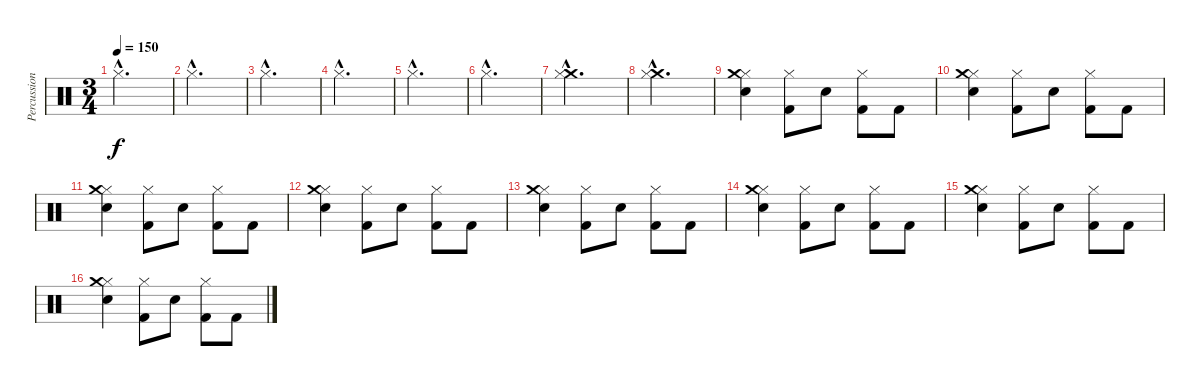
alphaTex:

\track ("Percussions" "Percussion") {instrument percussion}
\staff {score}
\articulation defaults
\ts (3 4)
\tempo 150
\clef neutral
\ks c "Hi-Hat (closed)"{hac}.2{d dy f}
|
"Hi-Hat (closed)"{hac}.2{d} |
"Hi-Hat (closed)"{hac}.2{d} |
"Hi-Hat (closed)"{hac}.2{d} |
"Hi-Hat (closed)"{hac}.2{d} |
"Hi-Hat (closed)"{hac}.2{d} |
("Crash medium (hit)"{hac} "Hi-Hat (closed)"{hac}).2{d} |
("Crash medium (hit)"{hac} "Hi-Hat (closed)"{hac}).2{d} |
("Hi-Hat (closed)" "Snare (hit) 2" "Crash medium (hit)").4 ("Hi-Hat (closed)" "Kick (hit) 2").8 "Snare (hit) 2".8 ("Hi-Hat (closed)" "Kick (hit) 2").8 "Kick (hit) 2".8 |
("Hi-Hat (closed)" "Snare (hit) 2" "Crash medium (hit)").4 ("Hi-Hat (closed)" "Kick (hit) 2").8 "Snare (hit) 2".8 ("Hi-Hat (closed)" "Kick (hit) 2").8 "Kick (hit) 2".8 |
("Hi-Hat (closed)" "Snare (hit) 2" "Crash medium (hit)").4 ("Hi-Hat (closed)" "Kick (hit) 2").8 "Snare (hit) 2".8 ("Hi-Hat (closed)" "Kick (hit) 2").8 "Kick (hit) 2".8 |
("Hi-Hat (closed)" "Snare (hit) 2" "Crash medium (hit)").4 ("Hi-Hat (closed)" "Kick (hit) 2").8 "Snare (hit) 2".8 ("Hi-Hat (closed)" "Kick (hit) 2").8 "Kick (hit) 2".8 |
("Hi-Hat (closed)" "Snare (hit) 2" "Crash medium (hit)").4 ("Hi-Hat (closed)" "Kick (hit) 2").8 "Snare (hit) 2".8 ("Hi-Hat (closed)" "Kick (hit) 2").8 "Kick (hit) 2".8 |
("Hi-Hat (closed)" "Snare (hit) 2" "Crash medium (hit)").4 ("Hi-Hat (closed)" "Kick (hit) 2").8 "Snare (hit) 2".8 ("Hi-Hat (closed)" "Kick (hit) 2").8 "Kick (hit) 2".8 |
("Hi-Hat (closed)" "Snare (hit) 2" "Crash medium (hit)").4 ("Hi-Hat (closed)" "Kick (hit) 2").8 "Snare (hit) 2".8 ("Hi-Hat (closed)" "Kick (hit) 2").8 "Kick (hit) 2".8 |
("Hi-Hat (closed)" "Snare (hit) 2" "Crash medium (hit)").4 ("Hi-Hat (closed)" "Kick (hit) 2").8 "Snare (hit) 2".8 ("Hi-Hat (closed)" "Kick (hit) 2").8 "Kick (hit) 2".8
